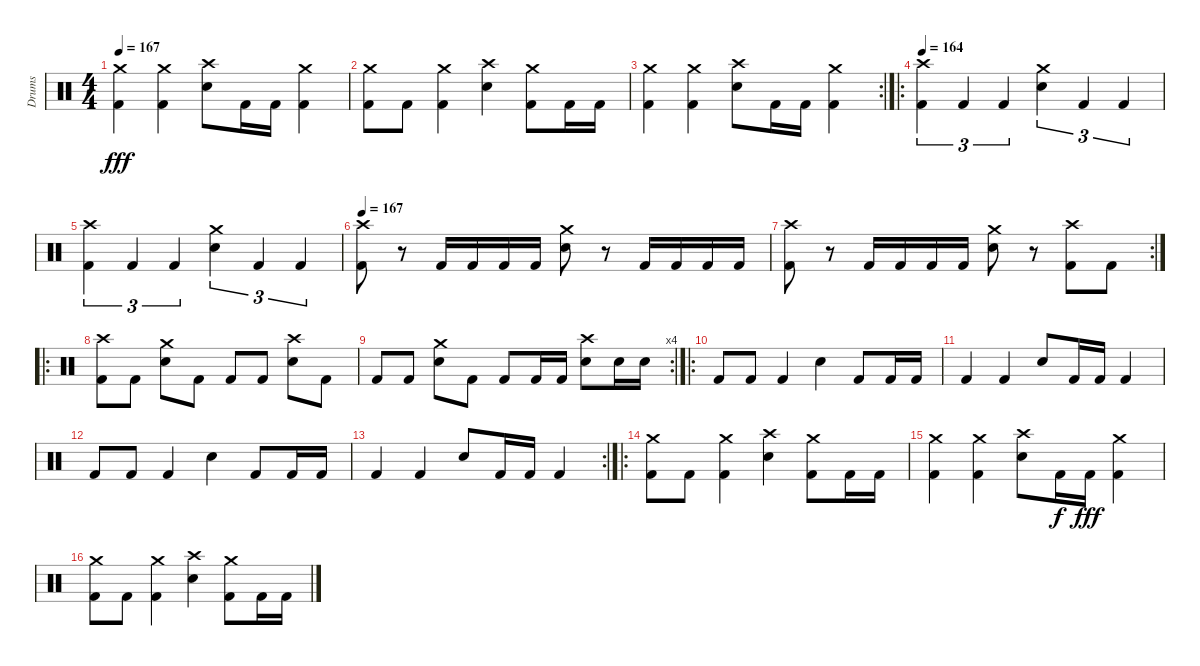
\track ("Drums" "Drums") {instrument percussion}
\staff {score}
\articulation defaults
\ts (4 4)
\tempo 167
\clef neutral
\ks c
("Crash medium (hit)" "Kick (hit) 2").4{dy fff} ("Crash medium (hit)" "Kick (hit) 2").4 ("Crash high (hit)" "Snare (hit) 2").8 "Kick (hit) 2".16 "Kick (hit) 2".16 ("Crash medium (hit)" "Kick (hit) 2").4 |
("Crash medium (hit)" "Kick (hit) 2").8 "Kick (hit) 2".8 ("Crash medium (hit)" "Kick (hit) 2").4 ("Crash high (hit)" "Snare (hit) 2").4 ("Crash medium (hit)" "Kick (hit) 2").8 "Kick (hit) 2".16 "Kick (hit) 2".16 |
\rc 2
("Crash medium (hit)" "Kick (hit) 2").4 ("Crash medium (hit)" "Kick (hit) 2").4 ("Crash high (hit)" "Snare (hit) 2").8 "Kick (hit) 2".16 "Kick (hit) 2".16 ("Crash medium (hit)" "Kick (hit) 2").4 |
\ro
\tempo 164
("Crash high (hit)" "Kick (hit) 2").4{tu (3 2)} "Kick (hit) 2".4{tu (3 2)} "Kick (hit) 2".4{tu (3 2)} ("Crash medium (hit)" "Snare (hit) 2").4{tu (3 2)} "Kick (hit) 2".4{tu (3 2)} "Kick (hit) 2".4{tu (3 2)} |
("Crash high (hit)" "Kick (hit) 2").4{tu (3 2)} "Kick (hit) 2".4{tu (3 2)} "Kick (hit) 2".4{tu (3 2)} ("Crash medium (hit)" "Snare (hit) 2").4{tu (3 2)} "Kick (hit) 2".4{tu (3 2)} "Kick (hit) 2".4{tu (3 2)} |
\tempo 167
("Crash high (hit)" "Kick (hit) 2").8 r.8 "Kick (hit) 2".16 "Kick (hit) 2".16 "Kick (hit) 2".16 "Kick (hit) 2".16 ("Crash medium (hit)" "Snare (hit) 2").8 r.8 "Kick (hit) 2".16 "Kick (hit) 2".16 "Kick (hit) 2".16 "Kick (hit) 2".16 |
\rc 2
("Crash high (hit)" "Kick (hit) 2").8 r.8 "Kick (hit) 2".16 "Kick (hit) 2".16 "Kick (hit) 2".16 "Kick (hit) 2".16 ("Crash medium (hit)" "Snare (hit) 2").8 r.8 ("Crash high (hit)" "Kick (hit) 2").8 "Kick (hit) 2".8 |
\ro
("Crash high (hit)" "Kick (hit) 2").8 "Kick (hit) 2".8 ("Crash medium (hit)" "Snare (hit) 2").8 "Kick (hit) 2".8 "Kick (hit) 2".8 "Kick (hit) 2".8 ("Crash high (hit)" "Snare (hit) 2").8 "Kick (hit) 2".8 |
\rc 4 "Kick (hit) 2".8 "Kick (hit) 2".8
("Crash medium (hit)" "Snare (hit) 2").8 "Kick (hit) 2".8 "Kick (hit) 2".8 "Kick (hit) 2".16 "Kick (hit) 2".16 ("Crash high (hit)" "Snare (hit) 2").8 "Snare (hit) 2".16 "Snare (hit) 2".16 |
\ro "Kick (hit) 2".8 "Kick (hit) 2".8 "Kick (hit) 2".4 "Snare (hit) 2".4 "Kick (hit) 2".8 "Kick (hit) 2".16 "Kick (hit) 2".16
|
"Kick (hit) 2".4 "Kick (hit) 2".4 "Snare (hit) 2".8 "Kick (hit) 2".16 "Kick (hit) 2".16 "Kick (hit) 2".4 |
"Kick (hit) 2".8 "Kick (hit) 2".8 "Kick (hit) 2".4 "Snare (hit) 2".4 "Kick (hit) 2".8 "Kick (hit) 2".16 "Kick (hit) 2".16 |
\rc 2 "Kick (hit) 2".4 "Kick (hit) 2".4 "Snare (hit) 2".8 "Kick (hit) 2".16 "Kick (hit) 2".16 "Kick (hit) 2".4
|
\ro
("Crash medium (hit)" "Kick (hit) 2").8 "Kick (hit) 2".8 ("Crash medium (hit)" "Kick (hit) 2").4 ("Crash high (hit)" "Snare (hit) 2").4 ("Crash medium (hit)" "Kick (hit) 2").8 "Kick (hit) 2".16 "Kick (hit) 2".16 |
("Crash medium (hit)" "Kick (hit) 2").4 ("Crash medium (hit)" "Kick (hit) 2").4 ("Crash high (hit)" "Snare (hit) 2").8 "Kick (hit) 2".16{dy f} "Kick (hit) 2".16{dy fff} ("Crash medium (hit)" "Kick (hit) 2").4 |
("Crash medium (hit)" "Kick (hit) 2").8 "Kick (hit) 2".8 ("Crash medium (hit)" "Kick (hit) 2").4 ("Crash high (hit)" "Snare (hit) 2").4 ("Crash medium (hit)" "Kick (hit) 2").8 "Kick (hit) 2".16 "Kick (hit) 2".16
